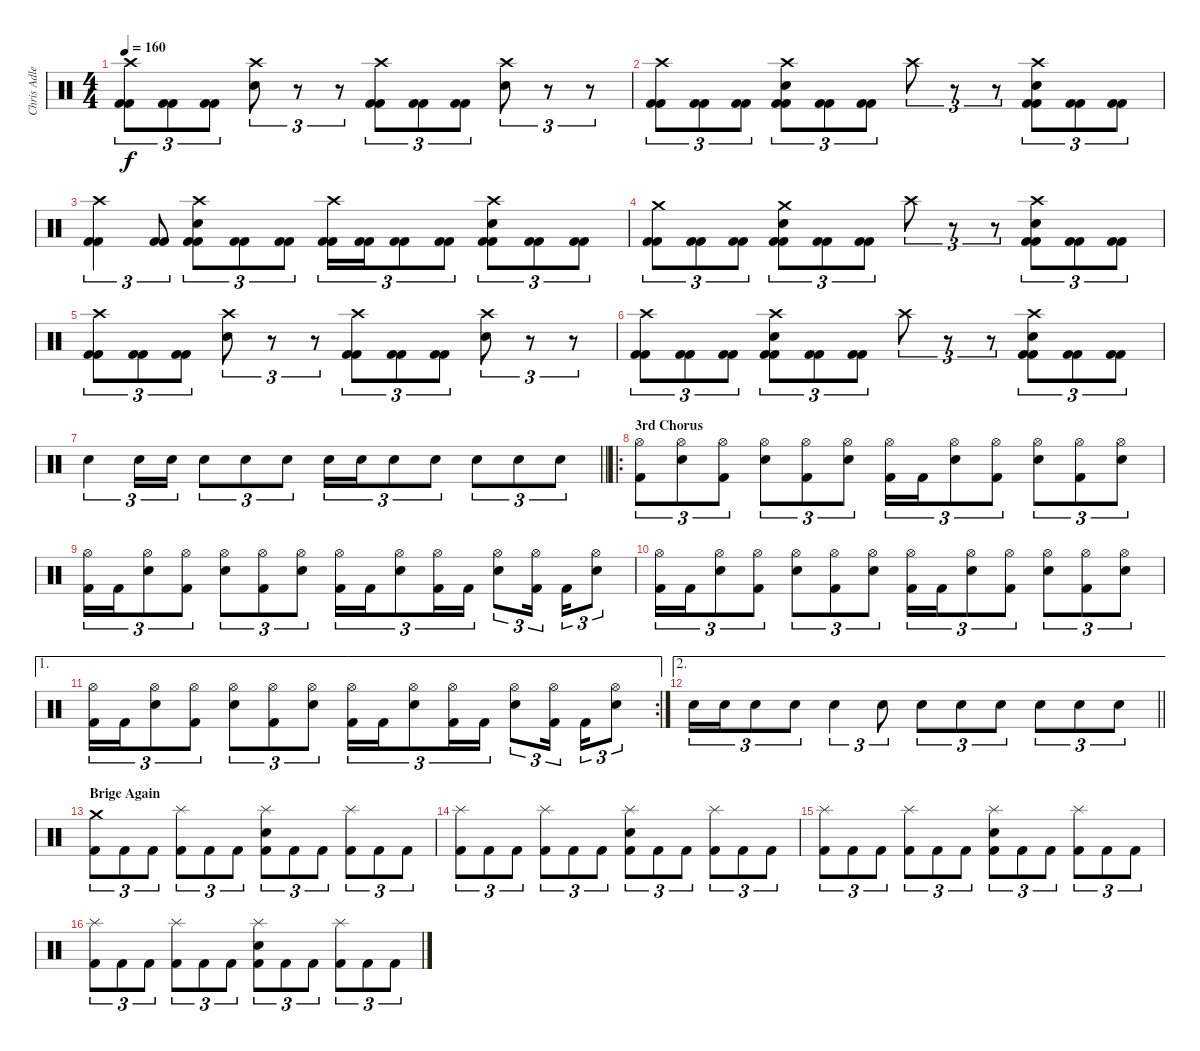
\track ("Chris Adler" "Chris Adle") {instrument percussion}
\staff {score}
\articulation defaults
\ts (4 4)
\tempo 160
\clef neutral
\ks c
("Crash high (hit)" "Kick (hit) 2" "Kick (hit) 2").8{tu (3 2) dy f} ("Kick (hit) 2" "Kick (hit) 2").8{tu (3 2)} ("Kick (hit) 2" "Kick (hit) 2").8{tu (3 2)} ("Crash high (hit)" "Snare (hit) 2").8{tu (3 2)} r.8{tu (3 2)} r.8{tu (3 2)} ("Crash high (hit)" "Kick (hit) 2" "Kick (hit) 2").8{tu (3 2)} ("Kick (hit) 2" "Kick (hit) 2").8{tu (3 2)} ("Kick (hit) 2" "Kick (hit) 2").8{tu (3 2)} ("Crash high (hit)" "Snare (hit) 2").8{tu (3 2)} r.8{tu (3 2)} r.8{tu (3 2)} |
("Crash high (hit)" "Kick (hit) 2" "Kick (hit) 2").8{tu (3 2)} ("Kick (hit) 2" "Kick (hit) 2").8{tu (3 2)} ("Kick (hit) 2" "Kick (hit) 2").8{tu (3 2)} ("Crash high (hit)" "Kick (hit) 2" "Snare (hit) 2" "Kick (hit) 2").8{tu (3 2)} ("Kick (hit) 2" "Kick (hit) 2").8{tu (3 2)} ("Kick (hit) 2" "Kick (hit) 2").8{tu (3 2)} "Crash high (hit)".8{tu (3 2)} r.8{tu (3 2)} r.8{tu (3 2)} ("Crash high (hit)" "Kick (hit) 2" "Snare (hit) 2" "Kick (hit) 2").8{tu (3 2)} ("Kick (hit) 2" "Kick (hit) 2").8{tu (3 2)} ("Kick (hit) 2" "Kick (hit) 2").8{tu (3 2)} |
("Crash high (hit)" "Kick (hit) 2" "Kick (hit) 2").4{tu (3 2)} ("Kick (hit) 2" "Kick (hit) 2").8{tu (3 2)} ("Crash high (hit)" "Kick (hit) 2" "Snare (hit) 2" "Kick (hit) 2").8{tu (3 2)} ("Kick (hit) 2" "Kick (hit) 2").8{tu (3 2)} ("Kick (hit) 2" "Kick (hit) 2").8{tu (3 2)} ("Crash high (hit)" "Kick (hit) 2" "Kick (hit) 2").16{tu (3 2)} ("Kick (hit) 2" "Kick (hit) 2").16{tu (3 2)} ("Kick (hit) 2" "Kick (hit) 2").8{tu (3 2)} ("Kick (hit) 2" "Kick (hit) 2").8{tu (3 2)} ("Crash high (hit)" "Kick (hit) 2" "Snare (hit) 2" "Kick (hit) 2").8{tu (3 2)} ("Kick (hit) 2" "Kick (hit) 2").8{tu (3 2)} ("Kick (hit) 2" "Kick (hit) 2").8{tu (3 2)} |
("Crash medium (hit)" "Kick (hit) 2" "Kick (hit) 2").8{tu (3 2)} ("Kick (hit) 2" "Kick (hit) 2").8{tu (3 2)} ("Kick (hit) 2" "Kick (hit) 2").8{tu (3 2)} ("Crash medium (hit)" "Kick (hit) 2" "Snare (hit) 2" "Kick (hit) 2").8{tu (3 2)} ("Kick (hit) 2" "Kick (hit) 2").8{tu (3 2)} ("Kick (hit) 2" "Kick (hit) 2").8{tu (3 2)} "Crash high (hit)".8{tu (3 2)} r.8{tu (3 2)} r.8{tu (3 2)} ("Crash high (hit)" "Kick (hit) 2" "Snare (hit) 2" "Kick (hit) 2").8{tu (3 2)} ("Kick (hit) 2" "Kick (hit) 2").8{tu (3 2)} ("Kick (hit) 2" "Kick (hit) 2").8{tu (3 2)} |
("Crash high (hit)" "Kick (hit) 2" "Kick (hit) 2").8{tu (3 2)} ("Kick (hit) 2" "Kick (hit) 2").8{tu (3 2)} ("Kick (hit) 2" "Kick (hit) 2").8{tu (3 2)} ("Crash high (hit)" "Snare (hit) 2").8{tu (3 2)} r.8{tu (3 2)} r.8{tu (3 2)} ("Crash high (hit)" "Kick (hit) 2" "Kick (hit) 2").8{tu (3 2)} ("Kick (hit) 2" "Kick (hit) 2").8{tu (3 2)} ("Kick (hit) 2" "Kick (hit) 2").8{tu (3 2)} ("Crash high (hit)" "Snare (hit) 2").8{tu (3 2)} r.8{tu (3 2)} r.8{tu (3 2)} |
("Crash high (hit)" "Kick (hit) 2" "Kick (hit) 2").8{tu (3 2)} ("Kick (hit) 2" "Kick (hit) 2").8{tu (3 2)} ("Kick (hit) 2" "Kick (hit) 2").8{tu (3 2)} ("Crash high (hit)" "Kick (hit) 2" "Snare (hit) 2" "Kick (hit) 2").8{tu (3 2)} ("Kick (hit) 2" "Kick (hit) 2").8{tu (3 2)} ("Kick (hit) 2" "Kick (hit) 2").8{tu (3 2)} "Crash high (hit)".8{tu (3 2)} r.8{tu (3 2)} r.8{tu (3 2)} ("Crash high (hit)" "Kick (hit) 2" "Snare (hit) 2" "Kick (hit) 2").8{tu (3 2)} ("Kick (hit) 2" "Kick (hit) 2").8{tu (3 2)} ("Kick (hit) 2" "Kick (hit) 2").8{tu (3 2)} |
\barLineRight lightlight "Electric Snare (hit)".4{tu (3 2)} "Electric Snare (hit)".16{tu (3 2)} "Electric Snare (hit)".16{tu (3 2)} "Electric Snare (hit)".8{tu (3 2)} "Electric Snare (hit)".8{tu (3 2)} "Electric Snare (hit)".8{tu (3 2)} "Electric Snare (hit)".16{tu (3 2)} "Electric Snare (hit)".16{tu (3 2)} "Electric Snare (hit)".8{tu (3 2)} "Electric Snare (hit)".8{tu (3 2)} "Electric Snare (hit)".8{tu (3 2)} "Electric Snare (hit)".8{tu (3 2)} "Electric Snare (hit)".8{tu (3 2)}
|
\ro
\section ("" "3rd Chorus")
("Hi-Hat (open)" "Kick (hit) 2").8{tu (3 2)} ("Hi-Hat (open)" "Snare (hit) 2").8{tu (3 2)} ("Hi-Hat (open)" "Kick (hit) 2").8{tu (3 2)} ("Hi-Hat (open)" "Snare (hit) 2").8{tu (3 2)} ("Hi-Hat (open)" "Kick (hit) 2").8{tu (3 2)} ("Hi-Hat (open)" "Snare (hit) 2").8{tu (3 2)} ("Hi-Hat (open)" "Kick (hit) 2").16{tu (3 2)} "Kick (hit) 2".16{tu (3 2)} ("Hi-Hat (open)" "Snare (hit) 2").8{tu (3 2)} ("Hi-Hat (open)" "Kick (hit) 2").8{tu (3 2)} ("Hi-Hat (open)" "Snare (hit) 2").8{tu (3 2)} ("Hi-Hat (open)" "Kick (hit) 2").8{tu (3 2)} ("Hi-Hat (open)" "Snare (hit) 2").8{tu (3 2)} |
("Hi-Hat (open)" "Kick (hit) 2").16{tu (3 2)} "Kick (hit) 2".16{tu (3 2)} ("Hi-Hat (open)" "Snare (hit) 2").8{tu (3 2)} ("Hi-Hat (open)" "Kick (hit) 2").8{tu (3 2)} ("Hi-Hat (open)" "Snare (hit) 2").8{tu (3 2)} ("Hi-Hat (open)" "Kick (hit) 2").8{tu (3 2)} ("Hi-Hat (open)" "Snare (hit) 2").8{tu (3 2)} ("Hi-Hat (open)" "Kick (hit) 2").16{tu (3 2)} "Kick (hit) 2".16{tu (3 2)} ("Hi-Hat (open)" "Snare (hit) 2").8{tu (3 2)} ("Hi-Hat (open)" "Kick (hit) 2").16{tu (3 2)} "Kick (hit) 2".16{tu (3 2)} ("Hi-Hat (open)" "Snare (hit) 2").8{tu (3 2)} ("Hi-Hat (open)" "Kick (hit) 2").16{tu (3 2) beam splitsecondary} "Kick (hit) 2".16{tu (3 2)} ("Hi-Hat (open)" "Snare (hit) 2").8{tu (3 2)} |
("Hi-Hat (open)" "Kick (hit) 2").16{tu (3 2)} "Kick (hit) 2".16{tu (3 2)} ("Hi-Hat (open)" "Snare (hit) 2").8{tu (3 2)} ("Hi-Hat (open)" "Kick (hit) 2").8{tu (3 2)} ("Hi-Hat (open)" "Snare (hit) 2").8{tu (3 2)} ("Hi-Hat (open)" "Kick (hit) 2").8{tu (3 2)} ("Hi-Hat (open)" "Snare (hit) 2").8{tu (3 2)} ("Hi-Hat (open)" "Kick (hit) 2").16{tu (3 2)} "Kick (hit) 2".16{tu (3 2)} ("Hi-Hat (open)" "Snare (hit) 2").8{tu (3 2)} ("Hi-Hat (open)" "Kick (hit) 2").8{tu (3 2)} ("Hi-Hat (open)" "Snare (hit) 2").8{tu (3 2)} ("Hi-Hat (open)" "Kick (hit) 2").8{tu (3 2)} ("Hi-Hat (open)" "Snare (hit) 2").8{tu (3 2)} |
\ae 1
\rc 2
("Hi-Hat (open)" "Kick (hit) 2").16{tu (3 2)} "Kick (hit) 2".16{tu (3 2)} ("Hi-Hat (open)" "Snare (hit) 2").8{tu (3 2)} ("Hi-Hat (open)" "Kick (hit) 2").8{tu (3 2)} ("Hi-Hat (open)" "Snare (hit) 2").8{tu (3 2)} ("Hi-Hat (open)" "Kick (hit) 2").8{tu (3 2)} ("Hi-Hat (open)" "Snare (hit) 2").8{tu (3 2)} ("Hi-Hat (open)" "Kick (hit) 2").16{tu (3 2)} "Kick (hit) 2".16{tu (3 2)} ("Hi-Hat (open)" "Snare (hit) 2").8{tu (3 2)} ("Hi-Hat (open)" "Kick (hit) 2").16{tu (3 2)} "Kick (hit) 2".16{tu (3 2)} ("Hi-Hat (open)" "Snare (hit) 2").8{tu (3 2)} ("Hi-Hat (open)" "Kick (hit) 2").16{tu (3 2) beam splitsecondary} "Kick (hit) 2".16{tu (3 2)} ("Hi-Hat (open)" "Snare (hit) 2").8{tu (3 2)} |
\ae 2
\barLineRight lightlight "Electric Snare (hit)".16{tu (3 2)} "Electric Snare (hit)".16{tu (3 2)} "Electric Snare (hit)".8{tu (3 2)} "Electric Snare (hit)".8{tu (3 2)} "Electric Snare (hit)".4{tu (3 2)} "Electric Snare (hit)".8{tu (3 2)} "Electric Snare (hit)".8{tu (3 2)} "Electric Snare (hit)".8{tu (3 2)} "Electric Snare (hit)".8{tu (3 2)} "Electric Snare (hit)".8{tu (3 2)} "Electric Snare (hit)".8{tu (3 2)} "Electric Snare (hit)".8{tu (3 2)}
|
\section ("" "Brige Again")
("Crash medium (hit)" "Kick (hit) 2").8{tu (3 2)} "Kick (hit) 2".8{tu (3 2)} "Kick (hit) 2".8{tu (3 2)} ("Splash (hit)" "Kick (hit) 2").8{tu (3 2)} "Kick (hit) 2".8{tu (3 2)} "Kick (hit) 2".8{tu (3 2)} ("Splash (hit)" "Snare (hit) 2" "Kick (hit) 2").8{tu (3 2)} "Kick (hit) 2".8{tu (3 2)} "Kick (hit) 2".8{tu (3 2)} ("Splash (hit)" "Kick (hit) 2").8{tu (3 2)} "Kick (hit) 2".8{tu (3 2)} "Kick (hit) 2".8{tu (3 2)} |
("Splash (hit)" "Kick (hit) 2").8{tu (3 2)} "Kick (hit) 2".8{tu (3 2)} "Kick (hit) 2".8{tu (3 2)} ("Splash (hit)" "Kick (hit) 2").8{tu (3 2)} "Kick (hit) 2".8{tu (3 2)} "Kick (hit) 2".8{tu (3 2)} ("Splash (hit)" "Snare (hit) 2" "Kick (hit) 2").8{tu (3 2)} "Kick (hit) 2".8{tu (3 2)} "Kick (hit) 2".8{tu (3 2)} ("Splash (hit)" "Kick (hit) 2").8{tu (3 2)} "Kick (hit) 2".8{tu (3 2)} "Kick (hit) 2".8{tu (3 2)} |
("Splash (hit)" "Kick (hit) 2").8{tu (3 2)} "Kick (hit) 2".8{tu (3 2)} "Kick (hit) 2".8{tu (3 2)} ("Splash (hit)" "Kick (hit) 2").8{tu (3 2)} "Kick (hit) 2".8{tu (3 2)} "Kick (hit) 2".8{tu (3 2)} ("Splash (hit)" "Snare (hit) 2" "Kick (hit) 2").8{tu (3 2)} "Kick (hit) 2".8{tu (3 2)} "Kick (hit) 2".8{tu (3 2)} ("Splash (hit)" "Kick (hit) 2").8{tu (3 2)} "Kick (hit) 2".8{tu (3 2)} "Kick (hit) 2".8{tu (3 2)} |
("Splash (hit)" "Kick (hit) 2").8{tu (3 2)} "Kick (hit) 2".8{tu (3 2)} "Kick (hit) 2".8{tu (3 2)} ("Splash (hit)" "Kick (hit) 2").8{tu (3 2)} "Kick (hit) 2".8{tu (3 2)} "Kick (hit) 2".8{tu (3 2)} ("Splash (hit)" "Snare (hit) 2" "Kick (hit) 2").8{tu (3 2)} "Kick (hit) 2".8{tu (3 2)} "Kick (hit) 2".8{tu (3 2)} ("Splash (hit)" "Kick (hit) 2").8{tu (3 2)} "Kick (hit) 2".8{tu (3 2)} "Kick (hit) 2".8{tu (3 2)}
